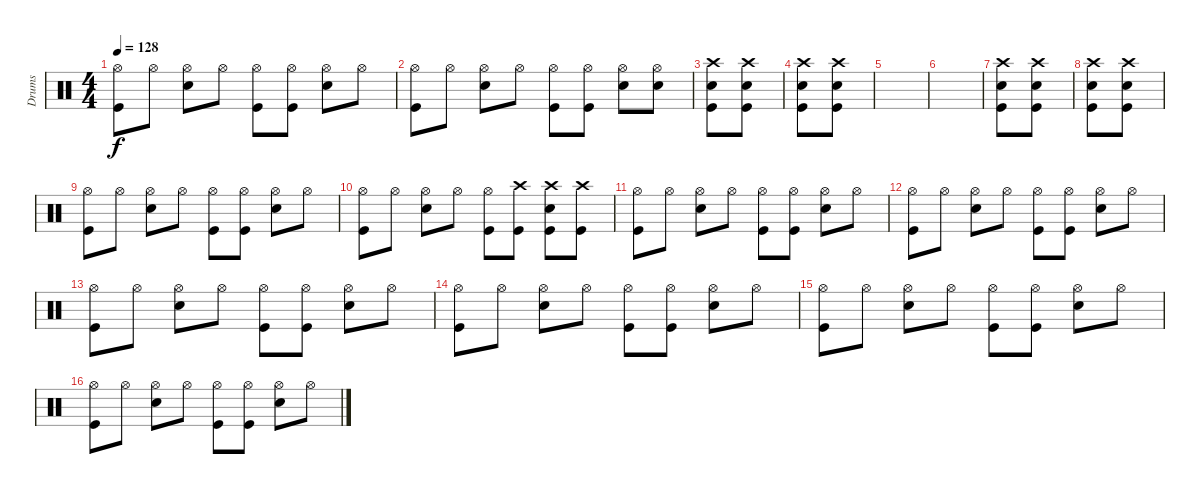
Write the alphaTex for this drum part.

\track ("Drums" "Drums") {instrument percussion}
\staff {score}
\articulation defaults
\ts (4 4)
\tempo 128
\clef neutral
\ks c
("Hi-Hat (open)" "Kick (hit)").8{dy f} "Hi-Hat (open)".8 ("Hi-Hat (open)" "Electric Snare (hit)").8 "Hi-Hat (open)".8 ("Hi-Hat (open)" "Kick (hit)").8 ("Hi-Hat (open)" "Kick (hit)").8 ("Hi-Hat (open)" "Electric Snare (hit)").8 "Hi-Hat (open)".8 |
("Hi-Hat (open)" "Kick (hit)").8 "Hi-Hat (open)".8 ("Hi-Hat (open)" "Electric Snare (hit)").8 "Hi-Hat (open)".8 ("Hi-Hat (open)" "Kick (hit)").8 ("Hi-Hat (open)" "Kick (hit)").8 ("Hi-Hat (open)" "Electric Snare (hit)").8 ("Hi-Hat (open)" "Snare (hit)").8 |
("Crash high (hit)" "Electric Snare (hit)" "Kick (hit)").8 ("Crash high (hit)" "Electric Snare (hit)" "Kick (hit)").8 |
("Crash high (hit)" "Electric Snare (hit)" "Kick (hit)").8 ("Crash high (hit)" "Electric Snare (hit)" "Kick (hit)").8 |
|
|
("Crash high (hit)" "Electric Snare (hit)" "Kick (hit)").8 ("Crash high (hit)" "Electric Snare (hit)" "Kick (hit)").8 |
("Crash high (hit)" "Electric Snare (hit)" "Kick (hit)").8 ("Crash high (hit)" "Electric Snare (hit)" "Kick (hit)").8 |
("Hi-Hat (open)" "Kick (hit)").8 "Hi-Hat (open)".8 ("Hi-Hat (open)" "Electric Snare (hit)").8 "Hi-Hat (open)".8 ("Hi-Hat (open)" "Kick (hit)").8 ("Hi-Hat (open)" "Kick (hit)").8 ("Hi-Hat (open)" "Electric Snare (hit)").8 "Hi-Hat (open)".8 |
("Hi-Hat (open)" "Kick (hit)").8 "Hi-Hat (open)".8 ("Hi-Hat (open)" "Electric Snare (hit)").8 "Hi-Hat (open)".8 ("Hi-Hat (open)" "Kick (hit)").8 ("Crash high (hit)" "Kick (hit)").8 ("Crash high (hit)" "Electric Snare (hit)" "Kick (hit)").8 ("Crash high (hit)" "Kick (hit)").8 |
("Hi-Hat (open)" "Kick (hit)").8 "Hi-Hat (open)".8 ("Hi-Hat (open)" "Electric Snare (hit)").8 "Hi-Hat (open)".8 ("Hi-Hat (open)" "Kick (hit)").8 ("Hi-Hat (open)" "Kick (hit)").8 ("Hi-Hat (open)" "Electric Snare (hit)").8 "Hi-Hat (open)".8 |
("Hi-Hat (open)" "Kick (hit)").8 "Hi-Hat (open)".8 ("Hi-Hat (open)" "Electric Snare (hit)").8 "Hi-Hat (open)".8 ("Hi-Hat (open)" "Kick (hit)").8 ("Hi-Hat (open)" "Kick (hit)").8 ("Hi-Hat (open)" "Electric Snare (hit)").8 "Hi-Hat (open)".8 |
("Hi-Hat (open)" "Kick (hit)").8 "Hi-Hat (open)".8 ("Hi-Hat (open)" "Electric Snare (hit)").8 "Hi-Hat (open)".8 ("Hi-Hat (open)" "Kick (hit)").8 ("Hi-Hat (open)" "Kick (hit)").8 ("Hi-Hat (open)" "Electric Snare (hit)").8 "Hi-Hat (open)".8 |
("Hi-Hat (open)" "Kick (hit)").8 "Hi-Hat (open)".8 ("Hi-Hat (open)" "Electric Snare (hit)").8 "Hi-Hat (open)".8 ("Hi-Hat (open)" "Kick (hit)").8 ("Hi-Hat (open)" "Kick (hit)").8 ("Hi-Hat (open)" "Electric Snare (hit)").8 "Hi-Hat (open)".8 |
("Hi-Hat (open)" "Kick (hit)").8 "Hi-Hat (open)".8 ("Hi-Hat (open)" "Electric Snare (hit)").8 "Hi-Hat (open)".8 ("Hi-Hat (open)" "Kick (hit)").8 ("Hi-Hat (open)" "Kick (hit)").8 ("Hi-Hat (open)" "Electric Snare (hit)").8 "Hi-Hat (open)".8 |
("Hi-Hat (open)" "Kick (hit)").8 "Hi-Hat (open)".8 ("Hi-Hat (open)" "Electric Snare (hit)").8 "Hi-Hat (open)".8 ("Hi-Hat (open)" "Kick (hit)").8 ("Hi-Hat (open)" "Kick (hit)").8 ("Hi-Hat (open)" "Electric Snare (hit)").8 "Hi-Hat (open)".8
